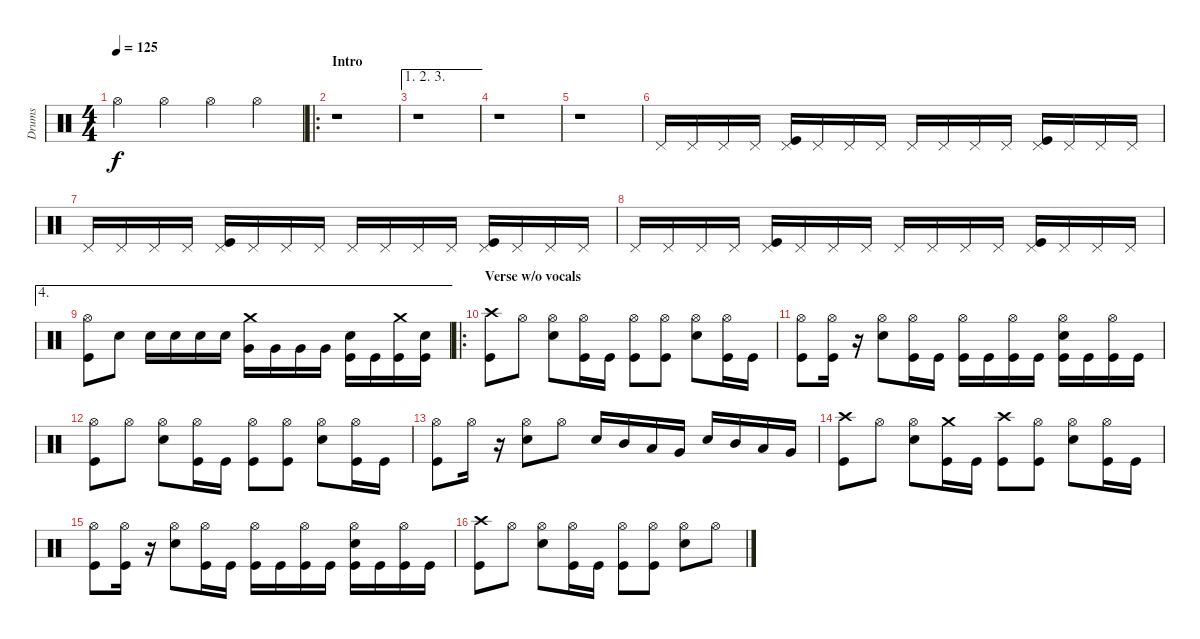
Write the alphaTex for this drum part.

\track ("Drums" "Drums") {instrument percussion}
\staff {score}
\articulation defaults
\ts (4 4)
\tempo 125
\clef neutral
\ks c "Hi-Hat (open)".4{dy f} "Hi-Hat (open)".4 "Hi-Hat (open)".4 "Hi-Hat (open)".4
|
\ro
\section ("" "Intro")
r.1 |
\ae (1 2 3)
r.1 |
r.1 |
r.1 |
"Pedal Hi-Hat (hit)".16 "Pedal Hi-Hat (hit)".16 "Pedal Hi-Hat (hit)".16 "Pedal Hi-Hat (hit)".16 ("Pedal Hi-Hat (hit)" "Kick (hit)").16 "Pedal Hi-Hat (hit)".16 "Pedal Hi-Hat (hit)".16 "Pedal Hi-Hat (hit)".16 "Pedal Hi-Hat (hit)".16 "Pedal Hi-Hat (hit)".16 "Pedal Hi-Hat (hit)".16 "Pedal Hi-Hat (hit)".16 ("Pedal Hi-Hat (hit)" "Kick (hit)").16 "Pedal Hi-Hat (hit)".16 "Pedal Hi-Hat (hit)".16 "Pedal Hi-Hat (hit)".16 |
"Pedal Hi-Hat (hit)".16 "Pedal Hi-Hat (hit)".16 "Pedal Hi-Hat (hit)".16 "Pedal Hi-Hat (hit)".16 ("Pedal Hi-Hat (hit)" "Kick (hit)").16 "Pedal Hi-Hat (hit)".16 "Pedal Hi-Hat (hit)".16 "Pedal Hi-Hat (hit)".16 "Pedal Hi-Hat (hit)".16 "Pedal Hi-Hat (hit)".16 "Pedal Hi-Hat (hit)".16 "Pedal Hi-Hat (hit)".16 ("Pedal Hi-Hat (hit)" "Kick (hit)").16 "Pedal Hi-Hat (hit)".16 "Pedal Hi-Hat (hit)".16 "Pedal Hi-Hat (hit)".16 |
"Pedal Hi-Hat (hit)".16 "Pedal Hi-Hat (hit)".16 "Pedal Hi-Hat (hit)".16 "Pedal Hi-Hat (hit)".16 ("Pedal Hi-Hat (hit)" "Kick (hit)").16 "Pedal Hi-Hat (hit)".16 "Pedal Hi-Hat (hit)".16 "Pedal Hi-Hat (hit)".16 "Pedal Hi-Hat (hit)".16 "Pedal Hi-Hat (hit)".16 "Pedal Hi-Hat (hit)".16 "Pedal Hi-Hat (hit)".16 ("Pedal Hi-Hat (hit)" "Kick (hit)").16 "Pedal Hi-Hat (hit)".16 "Pedal Hi-Hat (hit)".16 "Pedal Hi-Hat (hit)".16 |
\ae 4
("Hi-Hat (open)" "Kick (hit)").8 "Electric Snare (hit)".8 "Electric Snare (hit)".16 "Electric Snare (hit)".16 "Electric Snare (hit)".16 "Electric Snare (hit)".16 ("Crash medium (hit)" "Very Low Tom (hit)").16 "Very Low Tom (hit)".16 "Very Low Tom (hit)".16 "Very Low Tom (hit)".16 ("Electric Snare (hit)" "Kick (hit)").16 "Kick (hit)".16 ("Crash medium (hit)" "Kick (hit)").16 ("Electric Snare (hit)" "Kick (hit)").16 |
\ro
\section ("" "Verse w/o vocals")
("Crash high (hit)" "Kick (hit)").8 "Hi-Hat (open)".8 ("Hi-Hat (open)" "Electric Snare (hit)").8 ("Hi-Hat (open)" "Kick (hit)").16 "Kick (hit)".16 ("Hi-Hat (open)" "Kick (hit)").8 ("Hi-Hat (open)" "Kick (hit)").8 ("Hi-Hat (open)" "Electric Snare (hit)").8 ("Hi-Hat (open)" "Kick (hit)").16 "Kick (hit)".16 |
("Hi-Hat (open)" "Kick (hit)").8 ("Hi-Hat (open)" "Kick (hit)").16 r.16 ("Hi-Hat (open)" "Electric Snare (hit)").8 ("Hi-Hat (open)" "Kick (hit)").16 "Kick (hit)".16 ("Hi-Hat (open)" "Kick (hit)").16 "Kick (hit)".16 ("Hi-Hat (open)" "Kick (hit)").16 "Kick (hit)".16 ("Hi-Hat (open)" "Electric Snare (hit)" "Kick (hit)").16 "Kick (hit)".16 ("Hi-Hat (open)" "Kick (hit)").16 "Kick (hit)".16 |
("Hi-Hat (open)" "Kick (hit)").8 "Hi-Hat (open)".8 ("Hi-Hat (open)" "Electric Snare (hit)").8 ("Hi-Hat (open)" "Kick (hit)").16 "Kick (hit)".16 ("Hi-Hat (open)" "Kick (hit)").8 ("Hi-Hat (open)" "Kick (hit)").8 ("Hi-Hat (open)" "Electric Snare (hit)").8 ("Hi-Hat (open)" "Kick (hit)").16 "Kick (hit)".16 |
("Hi-Hat (open)" "Kick (hit)").8 "Hi-Hat (open)".16 r.16 ("Hi-Hat (open)" "Electric Snare (hit)").8 "Hi-Hat (open)".8 "Electric Snare (hit)".16 "Mid Tom (hit)".16 "Low Tom (hit)".16 "Very Low Tom (hit)".16 "Electric Snare (hit)".16 "Mid Tom (hit)".16 "Low Tom (hit)".16 "Very Low Tom (hit)".16 |
("Crash high (hit)" "Kick (hit)").8 "Hi-Hat (open)".8 ("Hi-Hat (open)" "Electric Snare (hit)").8 ("Crash medium (hit)" "Kick (hit)").16 "Kick (hit)".16 ("Crash high (hit)" "Kick (hit)").8 ("Hi-Hat (open)" "Kick (hit)").8 ("Hi-Hat (open)" "Electric Snare (hit)").8 ("Hi-Hat (open)" "Kick (hit)").16 "Kick (hit)".16 |
("Hi-Hat (open)" "Kick (hit)").8 ("Hi-Hat (open)" "Kick (hit)").16 r.16 ("Hi-Hat (open)" "Electric Snare (hit)").8 ("Hi-Hat (open)" "Kick (hit)").16 "Kick (hit)".16 ("Hi-Hat (open)" "Kick (hit)").16 "Kick (hit)".16 ("Hi-Hat (open)" "Kick (hit)").16 "Kick (hit)".16 ("Hi-Hat (open)" "Electric Snare (hit)" "Kick (hit)").16 "Kick (hit)".16 ("Hi-Hat (open)" "Kick (hit)").16 "Kick (hit)".16 |
("Crash high (hit)" "Kick (hit)").8 "Hi-Hat (open)".8 ("Hi-Hat (open)" "Electric Snare (hit)").8 ("Hi-Hat (open)" "Kick (hit)").16 "Kick (hit)".16 ("Hi-Hat (open)" "Kick (hit)").8 ("Hi-Hat (open)" "Kick (hit)").8 ("Hi-Hat (open)" "Electric Snare (hit)").8 "Hi-Hat (open)".8
